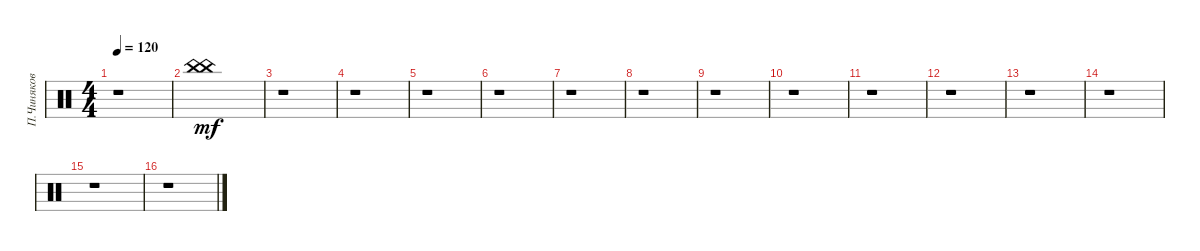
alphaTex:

\track ("П.Чиняков" "П.Чиняков") {instrument percussion}
\staff {score}
\articulation defaults
\ts (4 4)
\tempo 120
\clef neutral
\ks c
r.1{dy f} |
("China (hit)" "China (hit)").1{dy mf} |
r.1 |
r.1 |
r.1 |
r.1 |
r.1 |
r.1 |
r.1 |
r.1 |
r.1 |
r.1 |
r.1 |
r.1 |
r.1 |
r.1
